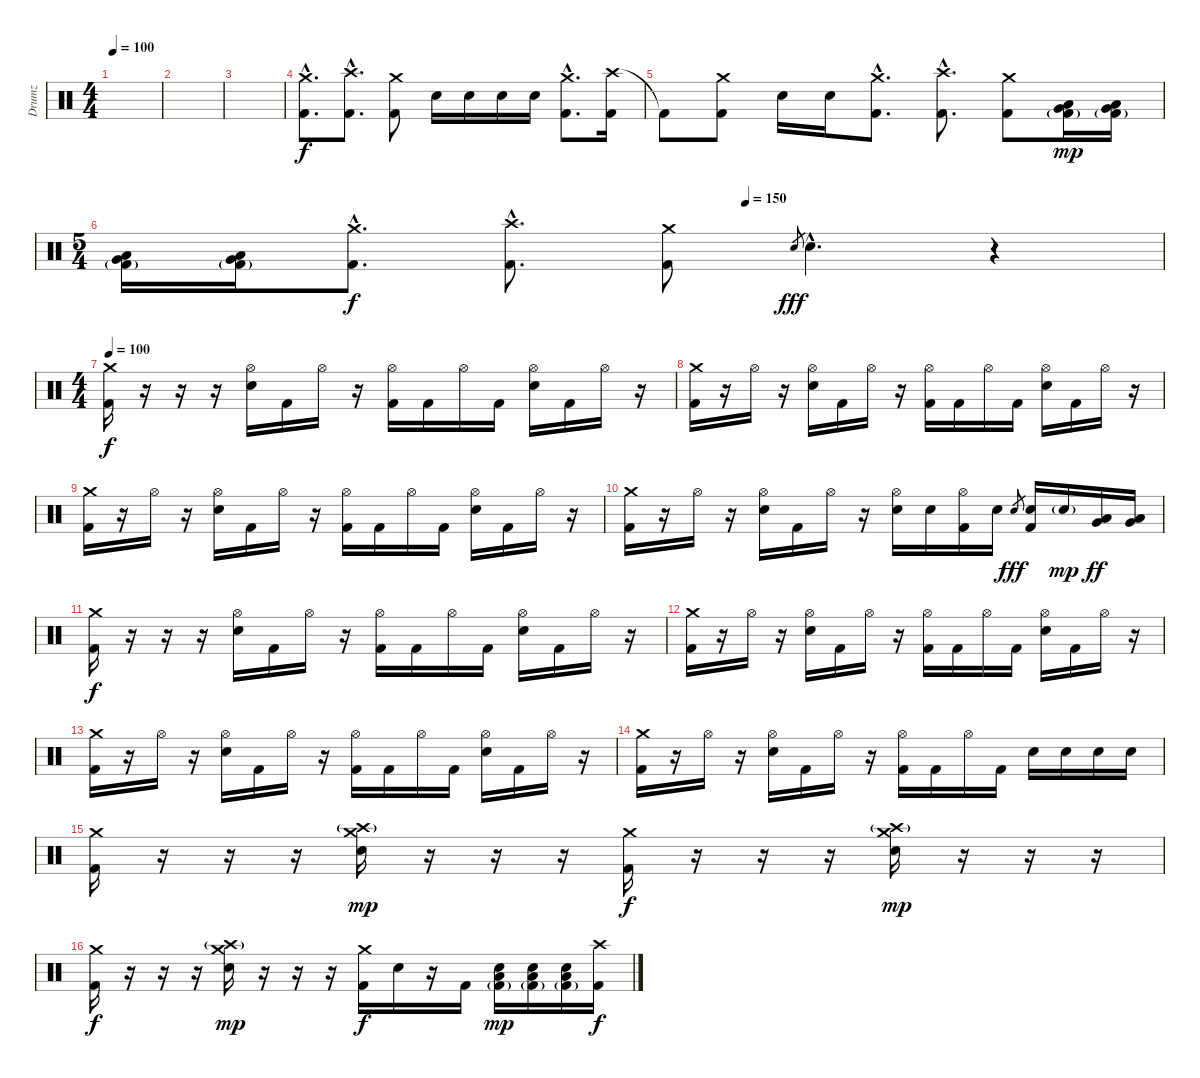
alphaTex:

\track ("Drumz" "Drumz") {instrument percussion}
\staff {score}
\articulation defaults
\ts (4 4)
\tempo 100
\clef neutral
\ks c
|
|
|
("Crash medium (hit)"{hac} "Kick (hit) 2"{hac}).8{d} ("Crash high (hit)"{hac} "Kick (hit) 2"{hac}).8{d} ("Crash medium (hit)" "Kick (hit) 2").8 "Electric Snare (hit)".16 "Electric Snare (hit)".16 "Electric Snare (hit)".16 "Electric Snare (hit)".16 ("Crash medium (hit)"{hac} "Kick (hit) 2"{hac}).8{d} ("Crash high (hit)" "Kick (hit) 2").16 |
"Kick (hit) 2"{t}.8 ("Crash medium (hit)" "Kick (hit) 2").8 "Electric Snare (hit)".16 "Electric Snare (hit)".16 ("Crash medium (hit)"{hac} "Kick (hit) 2"{hac}).8{d} ("Crash high (hit)"{hac} "Kick (hit) 2"{hac}).8{d} ("Crash medium (hit)" "Kick (hit) 2").8 ("Very Low Tom (hit)" "Low Floor Tom (hit)" "Kick (hit) 2"{g}).16{dy mp} ("Very Low Tom (hit)" "Low Floor Tom (hit)" "Kick (hit) 2"{g}).16 |
\ts (5 4)
\tempo (140 0.6)
\tempo (150 0.6)
("Very Low Tom (hit)" "Low Floor Tom (hit)" "Kick (hit) 2"{g}).16 ("Very Low Tom (hit)" "Low Floor Tom (hit)" "Kick (hit) 2"{g}).16 ("Crash medium (hit)"{hac} "Kick (hit) 2"{hac}).8{d dy f} ("Crash high (hit)"{hac} "Kick (hit) 2"{hac}).8{d} ("Crash medium (hit)" "Kick (hit) 2").8 "Electric Snare (hit)".8{gr dy fff} "Electric Snare (hit)"{hac}.4{d} r.4 |
\ts (4 4)
\tempo 100
("Crash medium (hit)" "Kick (hit) 2").16{dy f} r.16 r.16 r.16 ("Hi-Hat (open)" "Electric Snare (hit)").16 "Kick (hit) 2".16 "Hi-Hat (open)".16 r.16 ("Hi-Hat (open)" "Kick (hit) 2").16 "Kick (hit) 2".16 "Hi-Hat (open)".16 "Kick (hit) 2".16 ("Hi-Hat (open)" "Electric Snare (hit)").16 "Kick (hit) 2".16 "Hi-Hat (open)".16 r.16 |
("Crash medium (hit)" "Kick (hit) 2").16 r.16 "Hi-Hat (open)".16 r.16 ("Hi-Hat (open)" "Electric Snare (hit)").16 "Kick (hit) 2".16 "Hi-Hat (open)".16 r.16 ("Hi-Hat (open)" "Kick (hit) 2").16 "Kick (hit) 2".16 "Hi-Hat (open)".16 "Kick (hit) 2".16 ("Hi-Hat (open)" "Electric Snare (hit)").16 "Kick (hit) 2".16 "Hi-Hat (open)".16 r.16 |
("Crash medium (hit)" "Kick (hit) 2").16 r.16 "Hi-Hat (open)".16 r.16 ("Hi-Hat (open)" "Electric Snare (hit)").16 "Kick (hit) 2".16 "Hi-Hat (open)".16 r.16 ("Hi-Hat (open)" "Kick (hit) 2").16 "Kick (hit) 2".16 "Hi-Hat (open)".16 "Kick (hit) 2".16 ("Hi-Hat (open)" "Electric Snare (hit)").16 "Kick (hit) 2".16 "Hi-Hat (open)".16 r.16 |
("Crash medium (hit)" "Kick (hit) 2").16 r.16 "Hi-Hat (open)".16 r.16 ("Hi-Hat (open)" "Electric Snare (hit)").16 "Kick (hit) 2".16 "Hi-Hat (open)".16 r.16 ("Hi-Hat (open)" "Electric Snare (hit)").16 "Electric Snare (hit)".16 ("Hi-Hat (open)" "Kick (hit) 2").16 "Electric Snare (hit)".16 "Electric Snare (hit)".8{gr dy fff} ("Electric Snare (hit)" "Kick (hit) 2").16 "Electric Snare (hit)"{g}.16{dy mp} ("Low Floor Tom (hit)" "Very Low Tom (hit)").16{dy ff} ("Low Floor Tom (hit)" "Very Low Tom (hit)").16 |
("Crash medium (hit)" "Kick (hit) 2").16{dy f} r.16 r.16 r.16 ("Hi-Hat (open)" "Electric Snare (hit)").16 "Kick (hit) 2".16 "Hi-Hat (open)".16 r.16 ("Hi-Hat (open)" "Kick (hit) 2").16 "Kick (hit) 2".16 "Hi-Hat (open)".16 "Kick (hit) 2".16 ("Hi-Hat (open)" "Electric Snare (hit)").16 "Kick (hit) 2".16 "Hi-Hat (open)".16 r.16 |
("Crash medium (hit)" "Kick (hit) 2").16 r.16 "Hi-Hat (open)".16 r.16 ("Hi-Hat (open)" "Electric Snare (hit)").16 "Kick (hit) 2".16 "Hi-Hat (open)".16 r.16 ("Hi-Hat (open)" "Kick (hit) 2").16 "Kick (hit) 2".16 "Hi-Hat (open)".16 "Kick (hit) 2".16 ("Hi-Hat (open)" "Electric Snare (hit)").16 "Kick (hit) 2".16 "Hi-Hat (open)".16 r.16 |
("Crash medium (hit)" "Kick (hit) 2").16 r.16 "Hi-Hat (open)".16 r.16 ("Hi-Hat (open)" "Electric Snare (hit)").16 "Kick (hit) 2".16 "Hi-Hat (open)".16 r.16 ("Hi-Hat (open)" "Kick (hit) 2").16 "Kick (hit) 2".16 "Hi-Hat (open)".16 "Kick (hit) 2".16 ("Hi-Hat (open)" "Electric Snare (hit)").16 "Kick (hit) 2".16 "Hi-Hat (open)".16 r.16 |
("Crash medium (hit)" "Kick (hit) 2").16 r.16 "Hi-Hat (open)".16 r.16 ("Hi-Hat (open)" "Electric Snare (hit)").16 "Kick (hit) 2".16 "Hi-Hat (open)".16 r.16 ("Hi-Hat (open)" "Kick (hit) 2").16 "Kick (hit) 2".16 "Hi-Hat (open)".16 "Kick (hit) 2".16 "Electric Snare (hit)".16 "Electric Snare (hit)".16 "Electric Snare (hit)".16 "Electric Snare (hit)".16 |
("Crash medium (hit)" "Kick (hit) 2").16 r.16 r.16 r.16 ("Crash medium (hit)" "Crash high (hit)"{g} "Electric Snare (hit)").16{dy mp} r.16 r.16 r.16 ("Crash medium (hit)" "Kick (hit) 2").16{dy f} r.16 r.16 r.16 ("Crash medium (hit)" "Crash high (hit)"{g} "Electric Snare (hit)").16{dy mp} r.16 r.16 r.16 |
("Crash medium (hit)" "Kick (hit) 2").16{dy f} r.16 r.16 r.16 ("Crash medium (hit)" "Crash high (hit)"{g} "Electric Snare (hit)").16{dy mp} r.16 r.16 r.16 ("Crash medium (hit)" "Kick (hit) 2").16{dy f} "Electric Snare (hit)".16 r.16 "Kick (hit) 2".16 ("Electric Snare (hit)" "Low Floor Tom (hit)" "Kick (hit) 2"{g}).16{dy mp} ("Electric Snare (hit)" "Low Floor Tom (hit)" "Kick (hit) 2"{g}).16 ("Electric Snare (hit)" "Low Floor Tom (hit)" "Kick (hit) 2"{g}).16 ("Crash high (hit)" "Kick (hit) 2").16{dy f}
